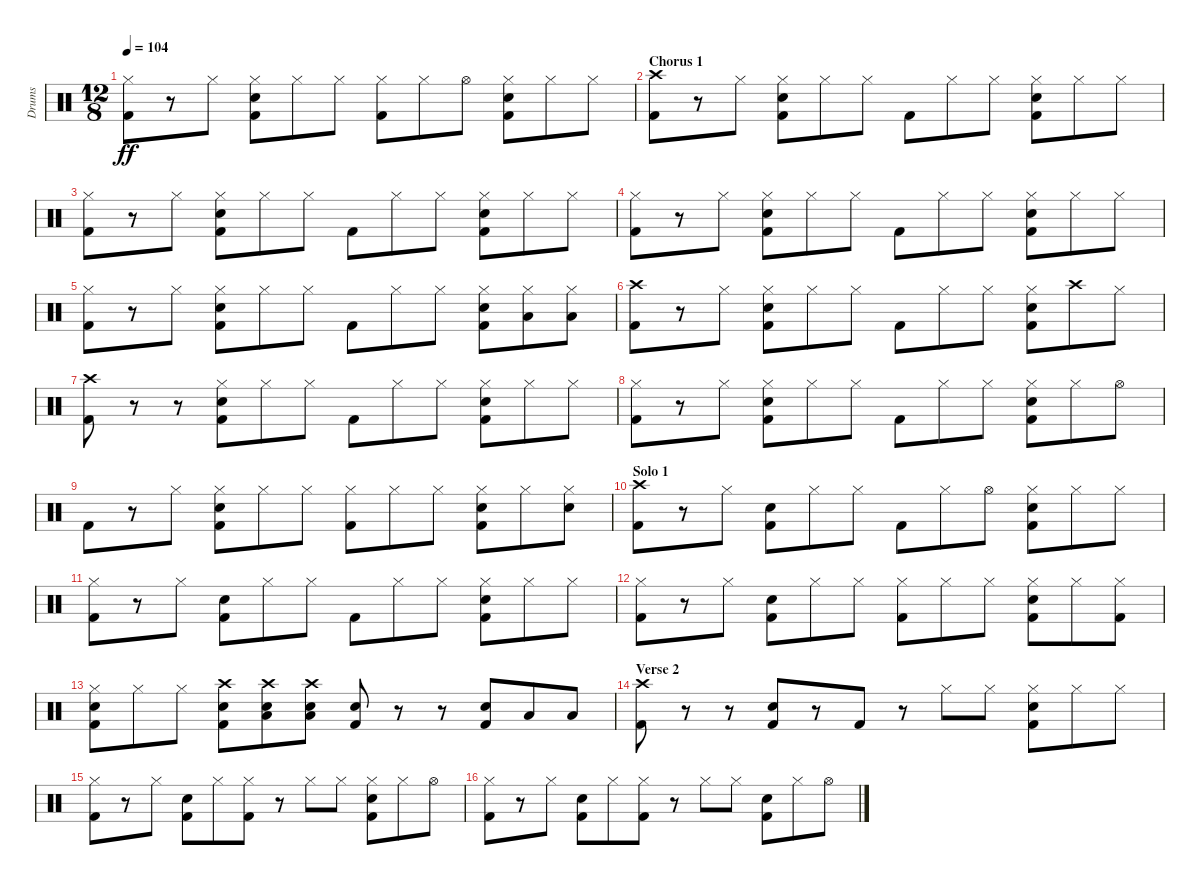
\track ("Drums" "Drums") {instrument percussion}
\staff {score}
\articulation defaults
\ts (12 8)
\tempo 104
\clef neutral
\ks c
("Hi-Hat (closed)" "Kick (hit) 2").8{dy ff} r.8 "Hi-Hat (closed)".8 ("Hi-Hat (closed)" "Snare (hit) 2" "Kick (hit) 2").8 "Hi-Hat (closed)".8 "Hi-Hat (closed)".8 ("Hi-Hat (closed)" "Kick (hit) 2").8 "Hi-Hat (closed)".8 "Hi-Hat (open)".8 ("Hi-Hat (closed)" "Snare (hit) 2" "Kick (hit) 2").8 "Hi-Hat (closed)".8 "Hi-Hat (closed)".8 |
\section ("" "Chorus 1")
("Crash high (hit)" "Kick (hit) 2").8 r.8 "Hi-Hat (closed)".8 ("Hi-Hat (closed)" "Snare (hit) 2" "Kick (hit) 2").8 "Hi-Hat (closed)".8 "Hi-Hat (closed)".8 "Kick (hit) 2".8 "Hi-Hat (closed)".8 "Hi-Hat (closed)".8 ("Hi-Hat (closed)" "Snare (hit) 2" "Kick (hit) 2").8 "Hi-Hat (closed)".8 "Hi-Hat (closed)".8 |
("Hi-Hat (closed)" "Kick (hit) 2").8 r.8 "Hi-Hat (closed)".8 ("Hi-Hat (closed)" "Snare (hit) 2" "Kick (hit) 2").8 "Hi-Hat (closed)".8 "Hi-Hat (closed)".8 "Kick (hit) 2".8 "Hi-Hat (closed)".8 "Hi-Hat (closed)".8 ("Hi-Hat (closed)" "Snare (hit) 2" "Kick (hit) 2").8 "Hi-Hat (closed)".8 "Hi-Hat (closed)".8 |
("Hi-Hat (closed)" "Kick (hit) 2").8 r.8 "Hi-Hat (closed)".8 ("Hi-Hat (closed)" "Snare (hit) 2" "Kick (hit) 2").8 "Hi-Hat (closed)".8 "Hi-Hat (closed)".8 "Kick (hit) 2".8 "Hi-Hat (closed)".8 "Hi-Hat (closed)".8 ("Hi-Hat (closed)" "Snare (hit) 2" "Kick (hit) 2").8 "Hi-Hat (closed)".8 "Hi-Hat (closed)".8 |
("Hi-Hat (closed)" "Kick (hit) 2").8 r.8 "Hi-Hat (closed)".8 ("Hi-Hat (closed)" "Snare (hit) 2" "Kick (hit) 2").8 "Hi-Hat (closed)".8 "Hi-Hat (closed)".8 "Kick (hit) 2".8 "Hi-Hat (closed)".8 "Hi-Hat (closed)".8 ("Hi-Hat (closed)" "Snare (hit) 2" "Kick (hit) 2").8 ("Hi-Hat (closed)" "Low Tom (hit)").8 ("Hi-Hat (closed)" "Low Tom (hit)").8 |
("Crash high (hit)" "Kick (hit) 2").8 r.8 "Hi-Hat (closed)".8 ("Hi-Hat (closed)" "Snare (hit) 2" "Kick (hit) 2").8 "Hi-Hat (closed)".8 "Hi-Hat (closed)".8 "Kick (hit) 2".8 "Hi-Hat (closed)".8 "Hi-Hat (closed)".8 ("Hi-Hat (closed)" "Snare (hit) 2" "Kick (hit) 2").8 "Crash high (hit)".8 "Hi-Hat (closed)".8 |
("Crash high (hit)" "Kick (hit) 2").8 r.8 r.8 ("Hi-Hat (closed)" "Snare (hit) 2" "Kick (hit) 2").8 "Hi-Hat (closed)".8 "Hi-Hat (closed)".8 "Kick (hit) 2".8 "Hi-Hat (closed)".8 "Hi-Hat (closed)".8 ("Hi-Hat (closed)" "Snare (hit) 2" "Kick (hit) 2").8 "Hi-Hat (closed)".8 "Hi-Hat (closed)".8 |
("Hi-Hat (closed)" "Kick (hit) 2").8 r.8 "Hi-Hat (closed)".8 ("Hi-Hat (closed)" "Snare (hit) 2" "Kick (hit) 2").8 "Hi-Hat (closed)".8 "Hi-Hat (closed)".8 "Kick (hit) 2".8 "Hi-Hat (closed)".8 "Hi-Hat (closed)".8 ("Hi-Hat (closed)" "Snare (hit) 2" "Kick (hit) 2").8 "Hi-Hat (closed)".8 "Hi-Hat (open)".8 |
"Kick (hit) 2".8 r.8 "Hi-Hat (closed)".8 ("Hi-Hat (closed)" "Snare (hit) 2" "Kick (hit) 2").8 "Hi-Hat (closed)".8 "Hi-Hat (closed)".8 ("Hi-Hat (closed)" "Kick (hit) 2").8 "Hi-Hat (closed)".8 "Hi-Hat (closed)".8 ("Hi-Hat (closed)" "Snare (hit) 2" "Kick (hit) 2").8 "Hi-Hat (closed)".8 ("Hi-Hat (closed)" "Snare (hit) 2").8 |
\section ("" "Solo 1")
("Crash high (hit)" "Kick (hit) 2").8 r.8 "Hi-Hat (closed)".8 ("Snare (hit) 2" "Kick (hit) 2").8 "Hi-Hat (closed)".8 "Hi-Hat (closed)".8 "Kick (hit) 2".8 "Hi-Hat (closed)".8 "Hi-Hat (open)".8 ("Hi-Hat (closed)" "Snare (hit) 2" "Kick (hit) 2").8 "Hi-Hat (closed)".8 "Hi-Hat (closed)".8 |
("Hi-Hat (closed)" "Kick (hit) 2").8 r.8 "Hi-Hat (closed)".8 ("Snare (hit) 2" "Kick (hit) 2").8 "Hi-Hat (closed)".8 "Hi-Hat (closed)".8 "Kick (hit) 2".8 "Hi-Hat (closed)".8 "Hi-Hat (closed)".8 ("Hi-Hat (closed)" "Snare (hit) 2" "Kick (hit) 2").8 "Hi-Hat (closed)".8 "Hi-Hat (closed)".8 |
("Hi-Hat (closed)" "Kick (hit) 2").8 r.8 "Hi-Hat (closed)".8 ("Snare (hit) 2" "Kick (hit) 2").8 "Hi-Hat (closed)".8 "Hi-Hat (closed)".8 ("Hi-Hat (closed)" "Kick (hit) 2").8 "Hi-Hat (closed)".8 "Hi-Hat (closed)".8 ("Hi-Hat (closed)" "Snare (hit) 2" "Kick (hit) 2").8 "Hi-Hat (closed)".8 ("Hi-Hat (closed)" "Kick (hit) 2").8 |
("Hi-Hat (closed)" "Snare (hit) 2" "Kick (hit) 2").8 "Hi-Hat (closed)".8 "Hi-Hat (closed)".8 ("Crash high (hit)" "Snare (hit) 2" "Kick (hit) 2").8 ("Crash high (hit)" "Snare (hit) 2" "Low Tom (hit)").8 ("Crash high (hit)" "Snare (hit) 2" "Low Tom (hit)").8 ("Snare (hit) 2" "Kick (hit) 2").8 r.8 r.8 ("Snare (hit) 2" "Kick (hit) 2").8 "Low Tom (hit)".8 "Low Tom (hit)".8 |
\section ("" "Verse 2")
("Crash high (hit)" "Kick (hit) 2").8 r.8 r.8 ("Snare (hit) 2" "Kick (hit) 2").8 r.8 "Kick (hit) 2".8 r.8 "Hi-Hat (closed)".8 "Hi-Hat (closed)".8 ("Hi-Hat (closed)" "Snare (hit) 2" "Kick (hit) 2").8 "Hi-Hat (closed)".8 "Hi-Hat (closed)".8 |
("Hi-Hat (closed)" "Kick (hit) 2").8 r.8 "Hi-Hat (closed)".8 ("Snare (hit) 2" "Kick (hit) 2").8 "Hi-Hat (closed)".8 ("Hi-Hat (closed)" "Kick (hit) 2").8 r.8 "Hi-Hat (closed)".8 "Hi-Hat (closed)".8 ("Hi-Hat (closed)" "Snare (hit) 2" "Kick (hit) 2").8 "Hi-Hat (closed)".8 "Hi-Hat (open)".8 |
("Hi-Hat (closed)" "Kick (hit) 2").8 r.8 "Hi-Hat (closed)".8 ("Snare (hit) 2" "Kick (hit) 2").8 "Hi-Hat (closed)".8 ("Hi-Hat (closed)" "Kick (hit) 2").8 r.8 "Hi-Hat (closed)".8 "Hi-Hat (closed)".8 ("Snare (hit) 2" "Kick (hit) 2").8 "Hi-Hat (closed)".8 "Hi-Hat (open)".8
